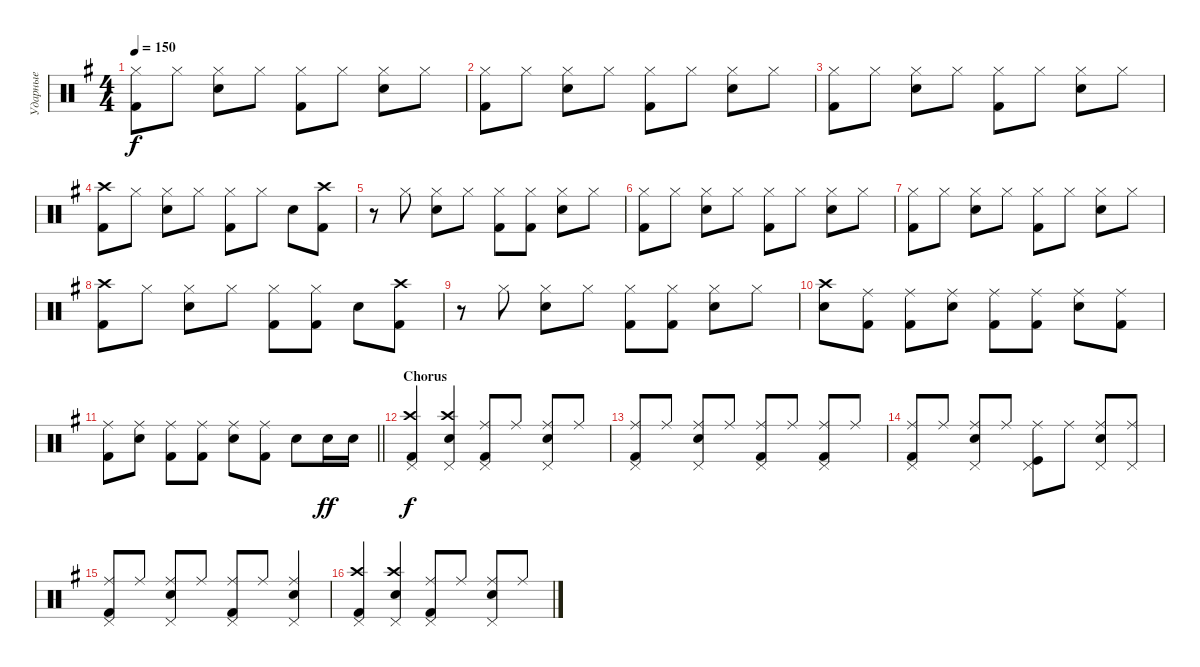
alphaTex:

\track ("Ударные" "Ударные") {instrument percussion}
\staff {score}
\articulation defaults
\ts (4 4)
\tempo 150
\clef neutral
\ks eminor
("Hi-Hat (closed)" "Kick (hit) 2").8{dy f} "Hi-Hat (closed)".8 ("Hi-Hat (closed)" "Snare (hit) 2").8 "Hi-Hat (closed)".8 ("Hi-Hat (closed)" "Kick (hit) 2").8 "Hi-Hat (closed)".8 ("Hi-Hat (closed)" "Snare (hit) 2").8 "Hi-Hat (closed)".8 |
("Hi-Hat (closed)" "Kick (hit) 2").8 "Hi-Hat (closed)".8 ("Hi-Hat (closed)" "Snare (hit) 2").8 "Hi-Hat (closed)".8 ("Hi-Hat (closed)" "Kick (hit) 2").8 "Hi-Hat (closed)".8 ("Hi-Hat (closed)" "Snare (hit) 2").8 "Hi-Hat (closed)".8 |
("Hi-Hat (closed)" "Kick (hit) 2").8 "Hi-Hat (closed)".8 ("Hi-Hat (closed)" "Snare (hit) 2").8 "Hi-Hat (closed)".8 ("Hi-Hat (closed)" "Kick (hit) 2").8 "Hi-Hat (closed)".8 ("Hi-Hat (closed)" "Snare (hit) 2").8 "Hi-Hat (closed)".8 |
("Kick (hit) 2" "Crash high (hit)").8 "Hi-Hat (closed)".8 ("Snare (hit) 2" "Hi-Hat (closed)").8 "Hi-Hat (closed)".8 ("Kick (hit) 2" "Hi-Hat (closed)").8 "Hi-Hat (closed)".8 "Snare (hit) 2".8 ("Kick (hit) 2" "Crash high (hit)").8 |
r.8 "Hi-Hat (closed)".8 ("Snare (hit) 2" "Hi-Hat (closed)").8 "Hi-Hat (closed)".8 ("Kick (hit) 2" "Hi-Hat (closed)").8 ("Hi-Hat (closed)" "Kick (hit) 2").8 ("Snare (hit) 2" "Hi-Hat (closed)").8 "Hi-Hat (closed)".8 |
("Hi-Hat (closed)" "Kick (hit) 2").8 "Hi-Hat (closed)".8 ("Hi-Hat (closed)" "Snare (hit) 2").8 "Hi-Hat (closed)".8 ("Hi-Hat (closed)" "Kick (hit) 2").8 "Hi-Hat (closed)".8 ("Hi-Hat (closed)" "Snare (hit) 2").8 "Hi-Hat (closed)".8 |
("Hi-Hat (closed)" "Kick (hit) 2").8 "Hi-Hat (closed)".8 ("Hi-Hat (closed)" "Snare (hit) 2").8 "Hi-Hat (closed)".8 ("Hi-Hat (closed)" "Kick (hit) 2").8 "Hi-Hat (closed)".8 ("Hi-Hat (closed)" "Snare (hit) 2").8 "Hi-Hat (closed)".8 |
("Kick (hit) 2" "Crash high (hit)").8 "Hi-Hat (closed)".8 ("Snare (hit) 2" "Hi-Hat (closed)").8 "Hi-Hat (closed)".8 ("Kick (hit) 2" "Hi-Hat (closed)").8 ("Hi-Hat (closed)" "Kick (hit) 2").8 "Snare (hit) 2".8 ("Kick (hit) 2" "Crash high (hit)").8 |
r.8 "Hi-Hat (closed)".8 ("Snare (hit) 2" "Hi-Hat (closed)").8 "Hi-Hat (closed)".8 ("Kick (hit) 2" "Hi-Hat (closed)").8 ("Hi-Hat (closed)" "Kick (hit) 2").8 ("Snare (hit) 2" "Hi-Hat (closed)").8 "Hi-Hat (closed)".8 |
("Snare (hit) 2" "Crash high (hit)").8 ("Kick (hit) 2" "Ride (middle)").8 ("Kick (hit) 2" "Ride (middle)").8 ("Snare (hit) 2" "Ride (middle)").8 ("Kick (hit) 2" "Ride (middle)").8 ("Kick (hit) 2" "Ride (middle)").8 ("Snare (hit) 2" "Ride (middle)").8 ("Kick (hit) 2" "Ride (middle)").8 |
\barLineRight lightlight
("Kick (hit) 2" "Ride (middle)").8 ("Snare (hit) 2" "Ride (middle)").8 ("Kick (hit) 2" "Ride (middle)").8 ("Kick (hit) 2" "Ride (middle)").8 ("Snare (hit) 2" "Ride (middle)").8 ("Kick (hit) 2" "Ride (middle)").8 "Snare (hit) 2".8 "Snare (hit) 2".16{dy ff} "Snare (hit) 2".16 |
\section ("" "Chorus")
("Kick (hit) 2" "Crash high (hit)" "Pedal Hi-Hat (hit)").4{dy f} ("Snare (hit) 2" "Crash high (hit)" "Pedal Hi-Hat (hit)").4 ("Kick (hit) 2" "Ride (middle)" "Pedal Hi-Hat (hit)").8 "Ride (middle)".8 ("Snare (hit) 2" "Ride (middle)" "Pedal Hi-Hat (hit)").8 "Ride (middle)".8 |
("Ride (middle)" "Kick (hit) 2" "Pedal Hi-Hat (hit)").8 "Ride (middle)".8 ("Ride (middle)" "Snare (hit) 2" "Pedal Hi-Hat (hit)").8 "Ride (middle)".8 ("Ride (middle)" "Kick (hit) 2" "Pedal Hi-Hat (hit)").8 "Ride (middle)".8 ("Ride (middle)" "Kick (hit) 2" "Pedal Hi-Hat (hit)").8 "Ride (middle)".8 |
("Ride (middle)" "Kick (hit) 2" "Pedal Hi-Hat (hit)").8 "Ride (middle)".8 ("Ride (middle)" "Snare (hit) 2" "Pedal Hi-Hat (hit)").8 "Ride (middle)".8 ("Ride (middle)" "Kick (hit)" "Pedal Hi-Hat (hit)").8 "Ride (middle)".8 ("Ride (middle)" "Snare (hit) 2" "Pedal Hi-Hat (hit)").8 ("Ride (middle)" "Pedal Hi-Hat (hit)").8 |
("Ride (middle)" "Kick (hit) 2" "Pedal Hi-Hat (hit)").8 "Ride (middle)".8 ("Ride (middle)" "Snare (hit) 2" "Pedal Hi-Hat (hit)").8 "Ride (middle)".8 ("Ride (middle)" "Kick (hit) 2" "Pedal Hi-Hat (hit)").8 "Ride (middle)".8 ("Ride (middle)" "Snare (hit) 2" "Pedal Hi-Hat (hit)").4 |
("Kick (hit) 2" "Crash high (hit)" "Pedal Hi-Hat (hit)").4 ("Snare (hit) 2" "Crash high (hit)" "Pedal Hi-Hat (hit)").4 ("Kick (hit) 2" "Ride (middle)" "Pedal Hi-Hat (hit)").8 "Ride (middle)".8 ("Snare (hit) 2" "Ride (middle)" "Pedal Hi-Hat (hit)").8 "Ride (middle)".8
